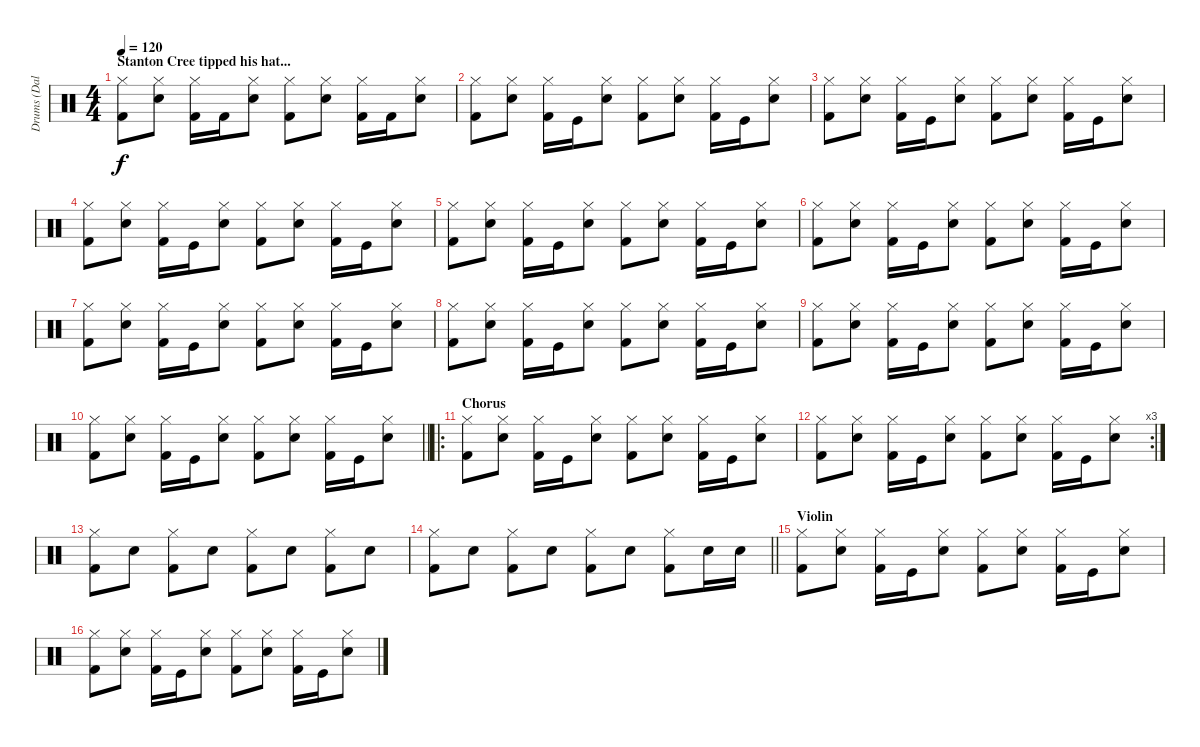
\track ("Drums (Dalton Black)" "Drums (Dal") {instrument percussion}
\staff {score}
\articulation defaults
\ts (4 4)
\section ("" "Stanton Cree tipped his hat...")
\tempo 120
\clef neutral
\ks c
("Hi-Hat (closed)" "Kick (hit) 2").8{dy f} ("Hi-Hat (closed)" "Electric Snare (hit)").8 ("Hi-Hat (closed)" "Kick (hit) 2").16 "Kick (hit) 2".16 ("Hi-Hat (closed)" "Electric Snare (hit)").8 ("Hi-Hat (closed)" "Kick (hit) 2").8 ("Hi-Hat (closed)" "Electric Snare (hit)").8 ("Hi-Hat (closed)" "Kick (hit) 2").16 "Kick (hit) 2".16 ("Hi-Hat (closed)" "Electric Snare (hit)").8 |
("Hi-Hat (closed)" "Kick (hit) 2").8 ("Hi-Hat (closed)" "Electric Snare (hit)").8 ("Hi-Hat (closed)" "Kick (hit) 2").16 "Kick (hit)".16 ("Hi-Hat (closed)" "Electric Snare (hit)").8 ("Hi-Hat (closed)" "Kick (hit) 2").8 ("Hi-Hat (closed)" "Electric Snare (hit)").8 ("Hi-Hat (closed)" "Kick (hit) 2").16 "Kick (hit)".16 ("Hi-Hat (closed)" "Electric Snare (hit)").8 |
("Hi-Hat (closed)" "Kick (hit) 2").8 ("Hi-Hat (closed)" "Electric Snare (hit)").8 ("Hi-Hat (closed)" "Kick (hit) 2").16 "Kick (hit)".16 ("Hi-Hat (closed)" "Electric Snare (hit)").8 ("Hi-Hat (closed)" "Kick (hit) 2").8 ("Hi-Hat (closed)" "Electric Snare (hit)").8 ("Hi-Hat (closed)" "Kick (hit) 2").16 "Kick (hit)".16 ("Hi-Hat (closed)" "Electric Snare (hit)").8 |
("Hi-Hat (closed)" "Kick (hit) 2").8 ("Hi-Hat (closed)" "Electric Snare (hit)").8 ("Hi-Hat (closed)" "Kick (hit) 2").16 "Kick (hit)".16 ("Hi-Hat (closed)" "Electric Snare (hit)").8 ("Hi-Hat (closed)" "Kick (hit) 2").8 ("Hi-Hat (closed)" "Electric Snare (hit)").8 ("Hi-Hat (closed)" "Kick (hit) 2").16 "Kick (hit)".16 ("Hi-Hat (closed)" "Electric Snare (hit)").8 |
("Hi-Hat (closed)" "Kick (hit) 2").8 ("Hi-Hat (closed)" "Electric Snare (hit)").8 ("Hi-Hat (closed)" "Kick (hit) 2").16 "Kick (hit)".16 ("Hi-Hat (closed)" "Electric Snare (hit)").8 ("Hi-Hat (closed)" "Kick (hit) 2").8 ("Hi-Hat (closed)" "Electric Snare (hit)").8 ("Hi-Hat (closed)" "Kick (hit) 2").16 "Kick (hit)".16 ("Hi-Hat (closed)" "Electric Snare (hit)").8 |
("Hi-Hat (closed)" "Kick (hit) 2").8 ("Hi-Hat (closed)" "Electric Snare (hit)").8 ("Hi-Hat (closed)" "Kick (hit) 2").16 "Kick (hit)".16 ("Hi-Hat (closed)" "Electric Snare (hit)").8 ("Hi-Hat (closed)" "Kick (hit) 2").8 ("Hi-Hat (closed)" "Electric Snare (hit)").8 ("Hi-Hat (closed)" "Kick (hit) 2").16 "Kick (hit)".16 ("Hi-Hat (closed)" "Electric Snare (hit)").8 |
("Hi-Hat (closed)" "Kick (hit) 2").8 ("Hi-Hat (closed)" "Electric Snare (hit)").8 ("Hi-Hat (closed)" "Kick (hit) 2").16 "Kick (hit)".16 ("Hi-Hat (closed)" "Electric Snare (hit)").8 ("Hi-Hat (closed)" "Kick (hit) 2").8 ("Hi-Hat (closed)" "Electric Snare (hit)").8 ("Hi-Hat (closed)" "Kick (hit) 2").16 "Kick (hit)".16 ("Hi-Hat (closed)" "Electric Snare (hit)").8 |
("Hi-Hat (closed)" "Kick (hit) 2").8 ("Hi-Hat (closed)" "Electric Snare (hit)").8 ("Hi-Hat (closed)" "Kick (hit) 2").16 "Kick (hit)".16 ("Hi-Hat (closed)" "Electric Snare (hit)").8 ("Hi-Hat (closed)" "Kick (hit) 2").8 ("Hi-Hat (closed)" "Electric Snare (hit)").8 ("Hi-Hat (closed)" "Kick (hit) 2").16 "Kick (hit)".16 ("Hi-Hat (closed)" "Electric Snare (hit)").8 |
("Hi-Hat (closed)" "Kick (hit) 2").8 ("Hi-Hat (closed)" "Electric Snare (hit)").8 ("Hi-Hat (closed)" "Kick (hit) 2").16 "Kick (hit)".16 ("Hi-Hat (closed)" "Electric Snare (hit)").8 ("Hi-Hat (closed)" "Kick (hit) 2").8 ("Hi-Hat (closed)" "Electric Snare (hit)").8 ("Hi-Hat (closed)" "Kick (hit) 2").16 "Kick (hit)".16 ("Hi-Hat (closed)" "Electric Snare (hit)").8 |
\barLineRight lightlight
("Hi-Hat (closed)" "Kick (hit) 2").8 ("Hi-Hat (closed)" "Electric Snare (hit)").8 ("Hi-Hat (closed)" "Kick (hit) 2").16 "Kick (hit)".16 ("Hi-Hat (closed)" "Electric Snare (hit)").8 ("Hi-Hat (closed)" "Kick (hit) 2").8 ("Hi-Hat (closed)" "Electric Snare (hit)").8 ("Hi-Hat (closed)" "Kick (hit) 2").16 "Kick (hit)".16 ("Hi-Hat (closed)" "Electric Snare (hit)").8 |
\ro
\section ("" "Chorus")
("Hi-Hat (closed)" "Kick (hit) 2").8 ("Hi-Hat (closed)" "Electric Snare (hit)").8 ("Hi-Hat (closed)" "Kick (hit) 2").16 "Kick (hit)".16 ("Hi-Hat (closed)" "Electric Snare (hit)").8 ("Hi-Hat (closed)" "Kick (hit) 2").8 ("Hi-Hat (closed)" "Electric Snare (hit)").8 ("Hi-Hat (closed)" "Kick (hit) 2").16 "Kick (hit)".16 ("Hi-Hat (closed)" "Electric Snare (hit)").8 |
\rc 3
("Hi-Hat (closed)" "Kick (hit) 2").8 ("Hi-Hat (closed)" "Electric Snare (hit)").8 ("Hi-Hat (closed)" "Kick (hit) 2").16 "Kick (hit)".16 ("Hi-Hat (closed)" "Electric Snare (hit)").8 ("Hi-Hat (closed)" "Kick (hit) 2").8 ("Hi-Hat (closed)" "Electric Snare (hit)").8 ("Hi-Hat (closed)" "Kick (hit) 2").16 "Kick (hit)".16 ("Hi-Hat (closed)" "Electric Snare (hit)").8 |
("Hi-Hat (closed)" "Kick (hit) 2").8 "Electric Snare (hit)".8 ("Hi-Hat (closed)" "Kick (hit) 2").8 "Electric Snare (hit)".8 ("Hi-Hat (closed)" "Kick (hit) 2").8 "Electric Snare (hit)".8 ("Hi-Hat (closed)" "Kick (hit) 2").8 "Electric Snare (hit)".8 |
\barLineRight lightlight
("Hi-Hat (closed)" "Kick (hit) 2").8 "Electric Snare (hit)".8 ("Hi-Hat (closed)" "Kick (hit) 2").8 "Electric Snare (hit)".8 ("Hi-Hat (closed)" "Kick (hit) 2").8 "Electric Snare (hit)".8 ("Hi-Hat (closed)" "Kick (hit) 2").8 "Electric Snare (hit)".16 "Electric Snare (hit)".16 |
\section ("" "Violin")
("Hi-Hat (closed)" "Kick (hit) 2").8 ("Hi-Hat (closed)" "Electric Snare (hit)").8 ("Hi-Hat (closed)" "Kick (hit) 2").16 "Kick (hit)".16 ("Hi-Hat (closed)" "Electric Snare (hit)").8 ("Hi-Hat (closed)" "Kick (hit) 2").8 ("Hi-Hat (closed)" "Electric Snare (hit)").8 ("Hi-Hat (closed)" "Kick (hit) 2").16 "Kick (hit)".16 ("Hi-Hat (closed)" "Electric Snare (hit)").8 |
("Hi-Hat (closed)" "Kick (hit) 2").8 ("Hi-Hat (closed)" "Electric Snare (hit)").8 ("Hi-Hat (closed)" "Kick (hit) 2").16 "Kick (hit)".16 ("Hi-Hat (closed)" "Electric Snare (hit)").8 ("Hi-Hat (closed)" "Kick (hit) 2").8 ("Hi-Hat (closed)" "Electric Snare (hit)").8 ("Hi-Hat (closed)" "Kick (hit) 2").16 "Kick (hit)".16 ("Hi-Hat (closed)" "Electric Snare (hit)").8
